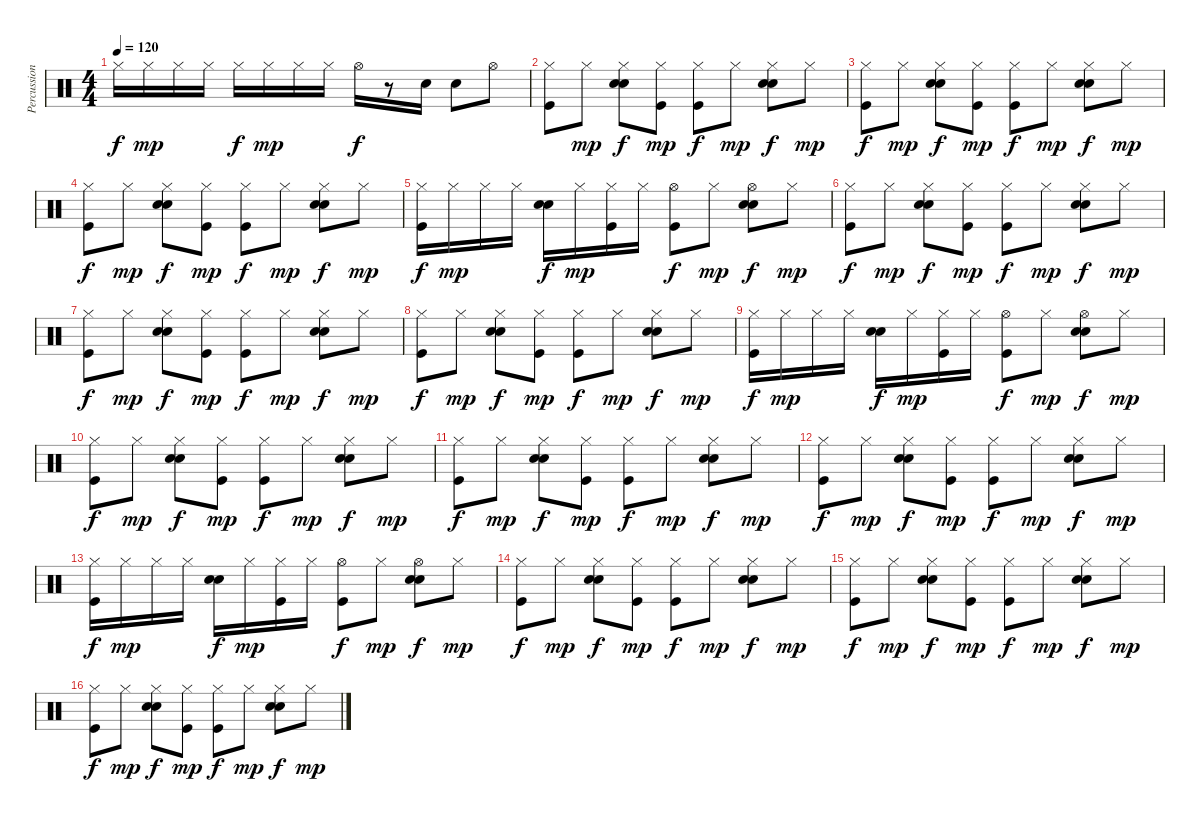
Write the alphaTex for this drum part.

\track ("Percussions" "Percussion") {instrument percussion}
\staff {score}
\articulation defaults
\ts (4 4)
\tempo 120
\clef neutral
\ks c "Hi-Hat (closed)".16{dy f} "Hi-Hat (closed)".16{dy mp} "Hi-Hat (closed)".16 "Hi-Hat (closed)".16 "Hi-Hat (closed)".16{dy f} "Hi-Hat (closed)".16{dy mp} "Hi-Hat (closed)".16 "Hi-Hat (closed)".16 "Hi-Hat (open)".16{dy f}
r.8 "Snare (hit) 2".16 "Snare (hit) 2".8 "Hi-Hat (open)".8 |
("Hi-Hat (closed)" "Kick (hit)").8 "Hi-Hat (closed)".8{dy mp} ("Hi-Hat (closed)" "Hand Clap (hit)" "Snare (hit) 2").8{dy f} ("Hi-Hat (closed)" "Kick (hit)").8{dy mp} ("Hi-Hat (closed)" "Kick (hit)").8{dy f} "Hi-Hat (closed)".8{dy mp} ("Hi-Hat (closed)" "Hand Clap (hit)" "Snare (hit) 2").8{dy f} "Hi-Hat (closed)".8{dy mp} |
("Hi-Hat (closed)" "Kick (hit)").8{dy f} "Hi-Hat (closed)".8{dy mp} ("Hi-Hat (closed)" "Hand Clap (hit)" "Snare (hit) 2").8{dy f} ("Hi-Hat (closed)" "Kick (hit)").8{dy mp} ("Hi-Hat (closed)" "Kick (hit)").8{dy f} "Hi-Hat (closed)".8{dy mp} ("Hi-Hat (closed)" "Hand Clap (hit)" "Snare (hit) 2").8{dy f} "Hi-Hat (closed)".8{dy mp} |
("Hi-Hat (closed)" "Kick (hit)").8{dy f} "Hi-Hat (closed)".8{dy mp} ("Hi-Hat (closed)" "Hand Clap (hit)" "Snare (hit) 2").8{dy f} ("Hi-Hat (closed)" "Kick (hit)").8{dy mp} ("Hi-Hat (closed)" "Kick (hit)").8{dy f} "Hi-Hat (closed)".8{dy mp} ("Hi-Hat (closed)" "Hand Clap (hit)" "Snare (hit) 2").8{dy f} "Hi-Hat (closed)".8{dy mp} |
("Hi-Hat (closed)" "Kick (hit)").16{dy f} "Hi-Hat (closed)".16{dy mp} "Hi-Hat (closed)".16 "Hi-Hat (closed)".16 ("Hand Clap (hit)" "Snare (hit) 2").16{dy f} "Hi-Hat (closed)".16{dy mp} ("Hi-Hat (closed)" "Kick (hit)").16 "Hi-Hat (closed)".16 ("Hi-Hat (open)" "Kick (hit)").8{dy f} "Hi-Hat (closed)".8{dy mp} ("Hi-Hat (open)" "Hand Clap (hit)" "Snare (hit) 2").8{dy f} "Hi-Hat (closed)".8{dy mp} |
("Hi-Hat (closed)" "Kick (hit)").8{dy f} "Hi-Hat (closed)".8{dy mp} ("Hi-Hat (closed)" "Hand Clap (hit)" "Snare (hit) 2").8{dy f} ("Hi-Hat (closed)" "Kick (hit)").8{dy mp} ("Hi-Hat (closed)" "Kick (hit)").8{dy f} "Hi-Hat (closed)".8{dy mp} ("Hi-Hat (closed)" "Hand Clap (hit)" "Snare (hit) 2").8{dy f} "Hi-Hat (closed)".8{dy mp} |
("Hi-Hat (closed)" "Kick (hit)").8{dy f} "Hi-Hat (closed)".8{dy mp} ("Hi-Hat (closed)" "Hand Clap (hit)" "Snare (hit) 2").8{dy f} ("Hi-Hat (closed)" "Kick (hit)").8{dy mp} ("Hi-Hat (closed)" "Kick (hit)").8{dy f} "Hi-Hat (closed)".8{dy mp} ("Hi-Hat (closed)" "Hand Clap (hit)" "Snare (hit) 2").8{dy f} "Hi-Hat (closed)".8{dy mp} |
("Hi-Hat (closed)" "Kick (hit)").8{dy f} "Hi-Hat (closed)".8{dy mp} ("Hi-Hat (closed)" "Hand Clap (hit)" "Snare (hit) 2").8{dy f} ("Hi-Hat (closed)" "Kick (hit)").8{dy mp} ("Hi-Hat (closed)" "Kick (hit)").8{dy f} "Hi-Hat (closed)".8{dy mp} ("Hi-Hat (closed)" "Hand Clap (hit)" "Snare (hit) 2").8{dy f} "Hi-Hat (closed)".8{dy mp} |
("Hi-Hat (closed)" "Kick (hit)").16{dy f} "Hi-Hat (closed)".16{dy mp} "Hi-Hat (closed)".16 "Hi-Hat (closed)".16 ("Hand Clap (hit)" "Snare (hit) 2").16{dy f} "Hi-Hat (closed)".16{dy mp} ("Hi-Hat (closed)" "Kick (hit)").16 "Hi-Hat (closed)".16 ("Hi-Hat (open)" "Kick (hit)").8{dy f} "Hi-Hat (closed)".8{dy mp} ("Hi-Hat (open)" "Hand Clap (hit)" "Snare (hit) 2").8{dy f} "Hi-Hat (closed)".8{dy mp} |
("Hi-Hat (closed)" "Kick (hit)").8{dy f} "Hi-Hat (closed)".8{dy mp} ("Hi-Hat (closed)" "Hand Clap (hit)" "Snare (hit) 2").8{dy f} ("Hi-Hat (closed)" "Kick (hit)").8{dy mp} ("Hi-Hat (closed)" "Kick (hit)").8{dy f} "Hi-Hat (closed)".8{dy mp} ("Hi-Hat (closed)" "Hand Clap (hit)" "Snare (hit) 2").8{dy f} "Hi-Hat (closed)".8{dy mp} |
("Hi-Hat (closed)" "Kick (hit)").8{dy f} "Hi-Hat (closed)".8{dy mp} ("Hi-Hat (closed)" "Hand Clap (hit)" "Snare (hit) 2").8{dy f} ("Hi-Hat (closed)" "Kick (hit)").8{dy mp} ("Hi-Hat (closed)" "Kick (hit)").8{dy f} "Hi-Hat (closed)".8{dy mp} ("Hi-Hat (closed)" "Hand Clap (hit)" "Snare (hit) 2").8{dy f} "Hi-Hat (closed)".8{dy mp} |
("Hi-Hat (closed)" "Kick (hit)").8{dy f} "Hi-Hat (closed)".8{dy mp} ("Hi-Hat (closed)" "Hand Clap (hit)" "Snare (hit) 2").8{dy f} ("Hi-Hat (closed)" "Kick (hit)").8{dy mp} ("Hi-Hat (closed)" "Kick (hit)").8{dy f} "Hi-Hat (closed)".8{dy mp} ("Hi-Hat (closed)" "Hand Clap (hit)" "Snare (hit) 2").8{dy f} "Hi-Hat (closed)".8{dy mp} |
("Hi-Hat (closed)" "Kick (hit)").16{dy f} "Hi-Hat (closed)".16{dy mp} "Hi-Hat (closed)".16 "Hi-Hat (closed)".16 ("Hand Clap (hit)" "Snare (hit) 2").16{dy f} "Hi-Hat (closed)".16{dy mp} ("Hi-Hat (closed)" "Kick (hit)").16 "Hi-Hat (closed)".16 ("Hi-Hat (open)" "Kick (hit)").8{dy f} "Hi-Hat (closed)".8{dy mp} ("Hi-Hat (open)" "Hand Clap (hit)" "Snare (hit) 2").8{dy f} "Hi-Hat (closed)".8{dy mp} |
("Hi-Hat (closed)" "Kick (hit)").8{dy f} "Hi-Hat (closed)".8{dy mp} ("Hi-Hat (closed)" "Hand Clap (hit)" "Snare (hit) 2").8{dy f} ("Hi-Hat (closed)" "Kick (hit)").8{dy mp} ("Hi-Hat (closed)" "Kick (hit)").8{dy f} "Hi-Hat (closed)".8{dy mp} ("Hi-Hat (closed)" "Hand Clap (hit)" "Snare (hit) 2").8{dy f} "Hi-Hat (closed)".8{dy mp} |
("Hi-Hat (closed)" "Kick (hit)").8{dy f} "Hi-Hat (closed)".8{dy mp} ("Hi-Hat (closed)" "Hand Clap (hit)" "Snare (hit) 2").8{dy f} ("Hi-Hat (closed)" "Kick (hit)").8{dy mp} ("Hi-Hat (closed)" "Kick (hit)").8{dy f} "Hi-Hat (closed)".8{dy mp} ("Hi-Hat (closed)" "Hand Clap (hit)" "Snare (hit) 2").8{dy f} "Hi-Hat (closed)".8{dy mp} |
("Hi-Hat (closed)" "Kick (hit)").8{dy f} "Hi-Hat (closed)".8{dy mp} ("Hi-Hat (closed)" "Hand Clap (hit)" "Snare (hit) 2").8{dy f} ("Hi-Hat (closed)" "Kick (hit)").8{dy mp} ("Hi-Hat (closed)" "Kick (hit)").8{dy f} "Hi-Hat (closed)".8{dy mp} ("Hi-Hat (closed)" "Hand Clap (hit)" "Snare (hit) 2").8{dy f} "Hi-Hat (closed)".8{dy mp}
